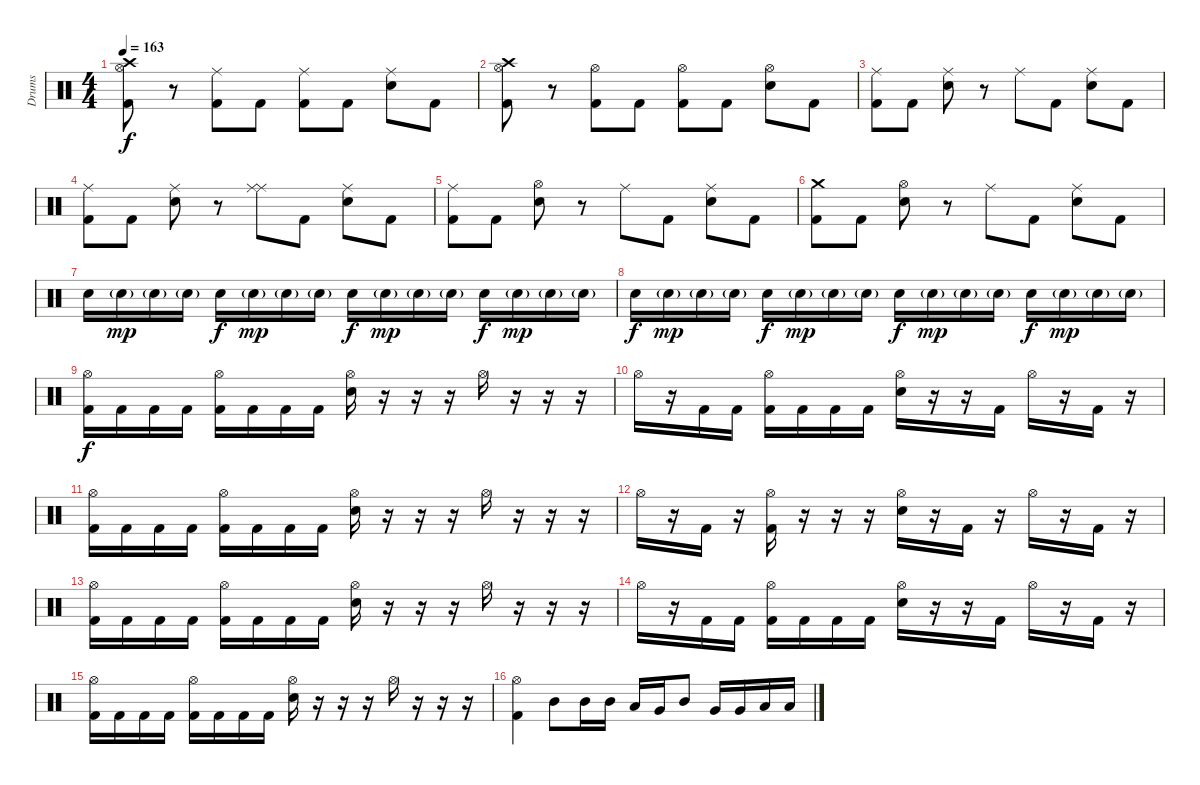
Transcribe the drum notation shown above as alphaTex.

\track ("Drums" "Drums") {instrument percussion}
\staff {score}
\articulation defaults
\ts (4 4)
\tempo 163
\clef neutral
\ks c
("Crash high (hit)" "Hi-Hat (open)" "Kick (hit) 2").8{dy f} r.8 ("Ride (middle)" "Kick (hit) 2").8 "Kick (hit) 2".8 ("Ride (middle)" "Kick (hit) 2").8 "Kick (hit) 2".8 ("Ride (middle)" "Electric Snare (hit)").8 "Kick (hit) 2".8 |
("Crash high (hit)" "Hi-Hat (open)" "Kick (hit) 2").8 r.8 ("Hi-Hat (open)" "Kick (hit) 2").8 "Kick (hit) 2".8 ("Hi-Hat (open)" "Kick (hit) 2").8 "Kick (hit) 2".8 ("Hi-Hat (open)" "Electric Snare (hit)").8 "Kick (hit) 2".8 |
("Ride (middle)" "Kick (hit) 2").8 "Kick (hit) 2".8 ("Ride (middle)" "Electric Snare (hit)").8 r.8 "Ride (middle)".8 "Kick (hit) 2".8 ("Ride (middle)" "Electric Snare (hit)").8 "Kick (hit) 2".8 |
("Ride (middle)" "Kick (hit) 2").8 "Kick (hit) 2".8 ("Ride (middle)" "Electric Snare (hit)").8 r.8 ("Ride (middle)" "Ride (middle)").8 "Kick (hit) 2".8 ("Ride (middle)" "Electric Snare (hit)").8 "Kick (hit) 2".8 |
("Ride (middle)" "Kick (hit) 2").8 "Kick (hit) 2".8 ("Hi-Hat (open)" "Electric Snare (hit)").8 r.8 "Ride (middle)".8 "Kick (hit) 2".8 ("Ride (middle)" "Electric Snare (hit)").8 "Kick (hit) 2".8 |
("Crash medium (hit)" "Kick (hit) 2").8 "Kick (hit) 2".8 ("Hi-Hat (open)" "Electric Snare (hit)").8 r.8 "Ride (middle)".8 "Kick (hit) 2".8 ("Ride (middle)" "Electric Snare (hit)").8 "Kick (hit) 2".8 |
"Electric Snare (hit)".16 "Electric Snare (hit)"{g}.16{dy mp} "Electric Snare (hit)"{g}.16 "Electric Snare (hit)"{g}.16 "Electric Snare (hit)".16{dy f} "Electric Snare (hit)"{g}.16{dy mp} "Electric Snare (hit)"{g}.16 "Electric Snare (hit)"{g}.16 "Electric Snare (hit)".16{dy f} "Electric Snare (hit)"{g}.16{dy mp} "Electric Snare (hit)"{g}.16 "Electric Snare (hit)"{g}.16 "Electric Snare (hit)".16{dy f} "Electric Snare (hit)"{g}.16{dy mp} "Electric Snare (hit)"{g}.16 "Electric Snare (hit)"{g}.16 |
"Electric Snare (hit)".16{dy f} "Electric Snare (hit)"{g}.16{dy mp} "Electric Snare (hit)"{g}.16 "Electric Snare (hit)"{g}.16 "Electric Snare (hit)".16{dy f} "Electric Snare (hit)"{g}.16{dy mp} "Electric Snare (hit)"{g}.16 "Electric Snare (hit)"{g}.16 "Electric Snare (hit)".16{dy f} "Electric Snare (hit)"{g}.16{dy mp} "Electric Snare (hit)"{g}.16 "Electric Snare (hit)"{g}.16 "Electric Snare (hit)".16{dy f} "Electric Snare (hit)"{g}.16{dy mp} "Electric Snare (hit)"{g}.16 "Electric Snare (hit)"{g}.16 |
("Hi-Hat (open)" "Kick (hit) 2").16{dy f} "Kick (hit) 2".16 "Kick (hit) 2".16 "Kick (hit) 2".16 ("Hi-Hat (open)" "Kick (hit) 2").16 "Kick (hit) 2".16 "Kick (hit) 2".16 "Kick (hit) 2".16 ("Hi-Hat (open)" "Electric Snare (hit)").16 r.16 r.16 r.16 "Hi-Hat (open)".16 r.16 r.16 r.16 |
"Hi-Hat (open)".16 r.16 "Kick (hit) 2".16 "Kick (hit) 2".16 ("Hi-Hat (open)" "Kick (hit) 2").16 "Kick (hit) 2".16 "Kick (hit) 2".16 "Kick (hit) 2".16 ("Hi-Hat (open)" "Electric Snare (hit)").16 r.16 r.16 "Kick (hit) 2".16 "Hi-Hat (open)".16 r.16 "Kick (hit) 2".16 r.16 |
("Hi-Hat (open)" "Kick (hit) 2").16 "Kick (hit) 2".16 "Kick (hit) 2".16 "Kick (hit) 2".16 ("Hi-Hat (open)" "Kick (hit) 2").16 "Kick (hit) 2".16 "Kick (hit) 2".16 "Kick (hit) 2".16 ("Hi-Hat (open)" "Electric Snare (hit)").16 r.16 r.16 r.16 "Hi-Hat (open)".16 r.16 r.16 r.16 |
"Hi-Hat (open)".16 r.16 "Kick (hit) 2".16 r.16 ("Hi-Hat (open)" "Kick (hit) 2").16 r.16 r.16 r.16 ("Hi-Hat (open)" "Electric Snare (hit)").16 r.16 "Kick (hit) 2".16 r.16 "Hi-Hat (open)".16 r.16 "Kick (hit) 2".16 r.16 |
("Hi-Hat (open)" "Kick (hit) 2").16 "Kick (hit) 2".16 "Kick (hit) 2".16 "Kick (hit) 2".16 ("Hi-Hat (open)" "Kick (hit) 2").16 "Kick (hit) 2".16 "Kick (hit) 2".16 "Kick (hit) 2".16 ("Hi-Hat (open)" "Electric Snare (hit)").16 r.16 r.16 r.16 "Hi-Hat (open)".16 r.16 r.16 r.16 |
"Hi-Hat (open)".16 r.16 "Kick (hit) 2".16 "Kick (hit) 2".16 ("Hi-Hat (open)" "Kick (hit) 2").16 "Kick (hit) 2".16 "Kick (hit) 2".16 "Kick (hit) 2".16 ("Hi-Hat (open)" "Electric Snare (hit)").16 r.16 r.16 "Kick (hit) 2".16 "Hi-Hat (open)".16 r.16 "Kick (hit) 2".16 r.16 |
("Hi-Hat (open)" "Kick (hit) 2").16 "Kick (hit) 2".16 "Kick (hit) 2".16 "Kick (hit) 2".16 ("Hi-Hat (open)" "Kick (hit) 2").16 "Kick (hit) 2".16 "Kick (hit) 2".16 "Kick (hit) 2".16 ("Hi-Hat (open)" "Electric Snare (hit)").16 r.16 r.16 r.16 "Hi-Hat (open)".16 r.16 r.16 r.16 |
("Hi-Hat (open)" "Kick (hit) 2").4 "Mid Tom (hit)".8 "Mid Tom (hit)".16 "Mid Tom (hit)".16 "Low Tom (hit)".16 "Very Low Tom (hit)".16 "Mid Tom (hit)".8 "Very Low Tom (hit)".16 "Very Low Tom (hit)".16 "Low Tom (hit)".16 "Low Tom (hit)".16
